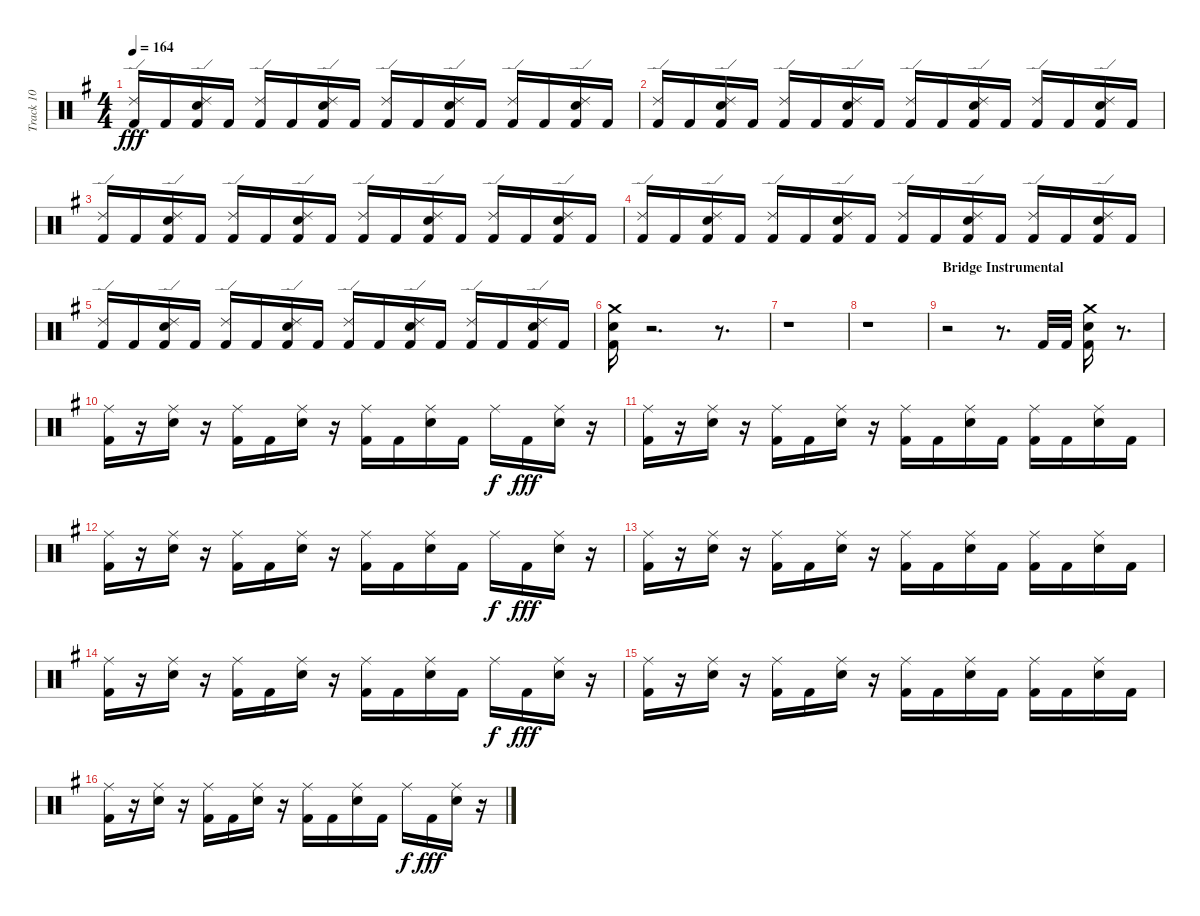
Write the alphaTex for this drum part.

\track ("Track 10" "Track 10") {instrument percussion}
\staff {score}
\articulation defaults
\ts (4 4)
\tempo 164
\clef neutral
\ks eminor
("Kick (hit) 2" "Ride (edge) 2").16{dy fff} "Kick (hit) 2".16 ("Electric Snare (hit)" "Kick (hit) 2" "Ride (edge) 2").16 "Kick (hit) 2".16 ("Kick (hit) 2" "Ride (edge) 2").16 "Kick (hit) 2".16 ("Kick (hit) 2" "Electric Snare (hit)" "Ride (edge) 2").16 "Kick (hit) 2".16 ("Kick (hit) 2" "Ride (edge) 2").16 "Kick (hit) 2".16 ("Kick (hit) 2" "Electric Snare (hit)" "Ride (edge) 2").16 "Kick (hit) 2".16 ("Kick (hit) 2" "Ride (edge) 2").16 "Kick (hit) 2".16 ("Electric Snare (hit)" "Kick (hit) 2" "Ride (edge) 2").16 "Kick (hit) 2".16 |
("Kick (hit) 2" "Ride (edge) 2").16 "Kick (hit) 2".16 ("Kick (hit) 2" "Electric Snare (hit)" "Ride (edge) 2").16 "Kick (hit) 2".16 ("Kick (hit) 2" "Ride (edge) 2").16 "Kick (hit) 2".16 ("Kick (hit) 2" "Electric Snare (hit)" "Ride (edge) 2").16 "Kick (hit) 2".16 ("Kick (hit) 2" "Ride (edge) 2").16 "Kick (hit) 2".16 ("Electric Snare (hit)" "Kick (hit) 2" "Ride (edge) 2").16 "Kick (hit) 2".16 ("Kick (hit) 2" "Ride (edge) 2").16 "Kick (hit) 2".16 ("Kick (hit) 2" "Electric Snare (hit)" "Ride (edge) 2").16 "Kick (hit) 2".16 |
("Kick (hit) 2" "Ride (edge) 2").16 "Kick (hit) 2".16 ("Electric Snare (hit)" "Kick (hit) 2" "Ride (edge) 2").16 "Kick (hit) 2".16 ("Kick (hit) 2" "Ride (edge) 2").16 "Kick (hit) 2".16 ("Kick (hit) 2" "Electric Snare (hit)" "Ride (edge) 2").16 "Kick (hit) 2".16 ("Kick (hit) 2" "Ride (edge) 2").16 "Kick (hit) 2".16 ("Electric Snare (hit)" "Kick (hit) 2" "Ride (edge) 2").16 "Kick (hit) 2".16 ("Kick (hit) 2" "Ride (edge) 2").16 "Kick (hit) 2".16 ("Electric Snare (hit)" "Kick (hit) 2" "Ride (edge) 2").16 "Kick (hit) 2".16 |
("Kick (hit) 2" "Ride (edge) 2").16 "Kick (hit) 2".16 ("Electric Snare (hit)" "Kick (hit) 2" "Ride (edge) 2").16 "Kick (hit) 2".16 ("Kick (hit) 2" "Ride (edge) 2").16 "Kick (hit) 2".16 ("Electric Snare (hit)" "Kick (hit) 2" "Ride (edge) 2").16 "Kick (hit) 2".16 ("Kick (hit) 2" "Ride (edge) 2").16 "Kick (hit) 2".16 ("Electric Snare (hit)" "Kick (hit) 2" "Ride (edge) 2").16 "Kick (hit) 2".16 ("Kick (hit) 2" "Ride (edge) 2").16 "Kick (hit) 2".16 ("Kick (hit) 2" "Electric Snare (hit)" "Ride (edge) 2").16 "Kick (hit) 2".16 |
("Kick (hit) 2" "Ride (edge) 2").16 "Kick (hit) 2".16 ("Electric Snare (hit)" "Kick (hit) 2" "Ride (edge) 2").16 "Kick (hit) 2".16 ("Kick (hit) 2" "Ride (edge) 2").16 "Kick (hit) 2".16 ("Electric Snare (hit)" "Kick (hit) 2" "Ride (edge) 2").16 "Kick (hit) 2".16 ("Kick (hit) 2" "Ride (edge) 2").16 "Kick (hit) 2".16 ("Kick (hit) 2" "Electric Snare (hit)" "Ride (edge) 2").16 "Kick (hit) 2".16 ("Kick (hit) 2" "Ride (edge) 2").16 "Kick (hit) 2".16 ("Electric Snare (hit)" "Kick (hit) 2" "Ride (edge) 2").16 "Kick (hit) 2".16 |
("Kick (hit) 2" "Electric Snare (hit)" "Crash medium (hit)").16 r.2{d} r.8{d} |
r.1 |
r.1 |
\section ("" "Bridge Instrumental")
r.2 r.8{d} "Kick (hit) 2".32 "Kick (hit) 2".32 ("Kick (hit) 2" "Electric Snare (hit)" "Crash medium (hit)").16 r.8{d} |
("Kick (hit) 2" "Ride (middle)").16 r.16 ("Electric Snare (hit)" "Ride (middle)").16 r.16 ("Kick (hit) 2" "Ride (middle)").16 "Kick (hit) 2".16 ("Electric Snare (hit)" "Ride (middle)").16 r.16 ("Kick (hit) 2" "Ride (middle)").16 "Kick (hit) 2".16 ("Electric Snare (hit)" "Ride (middle)").16 "Kick (hit) 2".16 "Ride (middle)".16{dy f} "Kick (hit) 2".16{dy fff} ("Electric Snare (hit)" "Ride (middle)").16 r.16 |
("Kick (hit) 2" "Ride (middle)").16 r.16 ("Electric Snare (hit)" "Ride (middle)").16 r.16 ("Kick (hit) 2" "Ride (middle)").16 "Kick (hit) 2".16 ("Electric Snare (hit)" "Ride (middle)").16 r.16 ("Kick (hit) 2" "Ride (middle)").16 "Kick (hit) 2".16 ("Electric Snare (hit)" "Ride (middle)").16 "Kick (hit) 2".16 ("Kick (hit) 2" "Ride (middle)").16 "Kick (hit) 2".16 ("Electric Snare (hit)" "Ride (middle)").16 "Kick (hit) 2".16 |
("Kick (hit) 2" "Ride (middle)").16 r.16 ("Electric Snare (hit)" "Ride (middle)").16 r.16 ("Kick (hit) 2" "Ride (middle)").16 "Kick (hit) 2".16 ("Electric Snare (hit)" "Ride (middle)").16 r.16 ("Kick (hit) 2" "Ride (middle)").16 "Kick (hit) 2".16 ("Electric Snare (hit)" "Ride (middle)").16 "Kick (hit) 2".16 "Ride (middle)".16{dy f} "Kick (hit) 2".16{dy fff} ("Electric Snare (hit)" "Ride (middle)").16 r.16 |
("Kick (hit) 2" "Ride (middle)").16 r.16 ("Electric Snare (hit)" "Ride (middle)").16 r.16 ("Kick (hit) 2" "Ride (middle)").16 "Kick (hit) 2".16 ("Electric Snare (hit)" "Ride (middle)").16 r.16 ("Kick (hit) 2" "Ride (middle)").16 "Kick (hit) 2".16 ("Electric Snare (hit)" "Ride (middle)").16 "Kick (hit) 2".16 ("Kick (hit) 2" "Ride (middle)").16 "Kick (hit) 2".16 ("Electric Snare (hit)" "Ride (middle)").16 "Kick (hit) 2".16 |
("Kick (hit) 2" "Ride (middle)").16 r.16 ("Electric Snare (hit)" "Ride (middle)").16 r.16 ("Kick (hit) 2" "Ride (middle)").16 "Kick (hit) 2".16 ("Electric Snare (hit)" "Ride (middle)").16 r.16 ("Kick (hit) 2" "Ride (middle)").16 "Kick (hit) 2".16 ("Electric Snare (hit)" "Ride (middle)").16 "Kick (hit) 2".16 "Ride (middle)".16{dy f} "Kick (hit) 2".16{dy fff} ("Electric Snare (hit)" "Ride (middle)").16 r.16 |
("Kick (hit) 2" "Ride (middle)").16 r.16 ("Electric Snare (hit)" "Ride (middle)").16 r.16 ("Kick (hit) 2" "Ride (middle)").16 "Kick (hit) 2".16 ("Electric Snare (hit)" "Ride (middle)").16 r.16 ("Kick (hit) 2" "Ride (middle)").16 "Kick (hit) 2".16 ("Electric Snare (hit)" "Ride (middle)").16 "Kick (hit) 2".16 ("Kick (hit) 2" "Ride (middle)").16 "Kick (hit) 2".16 ("Electric Snare (hit)" "Ride (middle)").16 "Kick (hit) 2".16 |
("Kick (hit) 2" "Ride (middle)").16 r.16 ("Electric Snare (hit)" "Ride (middle)").16 r.16 ("Kick (hit) 2" "Ride (middle)").16 "Kick (hit) 2".16 ("Electric Snare (hit)" "Ride (middle)").16 r.16 ("Kick (hit) 2" "Ride (middle)").16 "Kick (hit) 2".16 ("Electric Snare (hit)" "Ride (middle)").16 "Kick (hit) 2".16 "Ride (middle)".16{dy f} "Kick (hit) 2".16{dy fff} ("Electric Snare (hit)" "Ride (middle)").16 r.16
